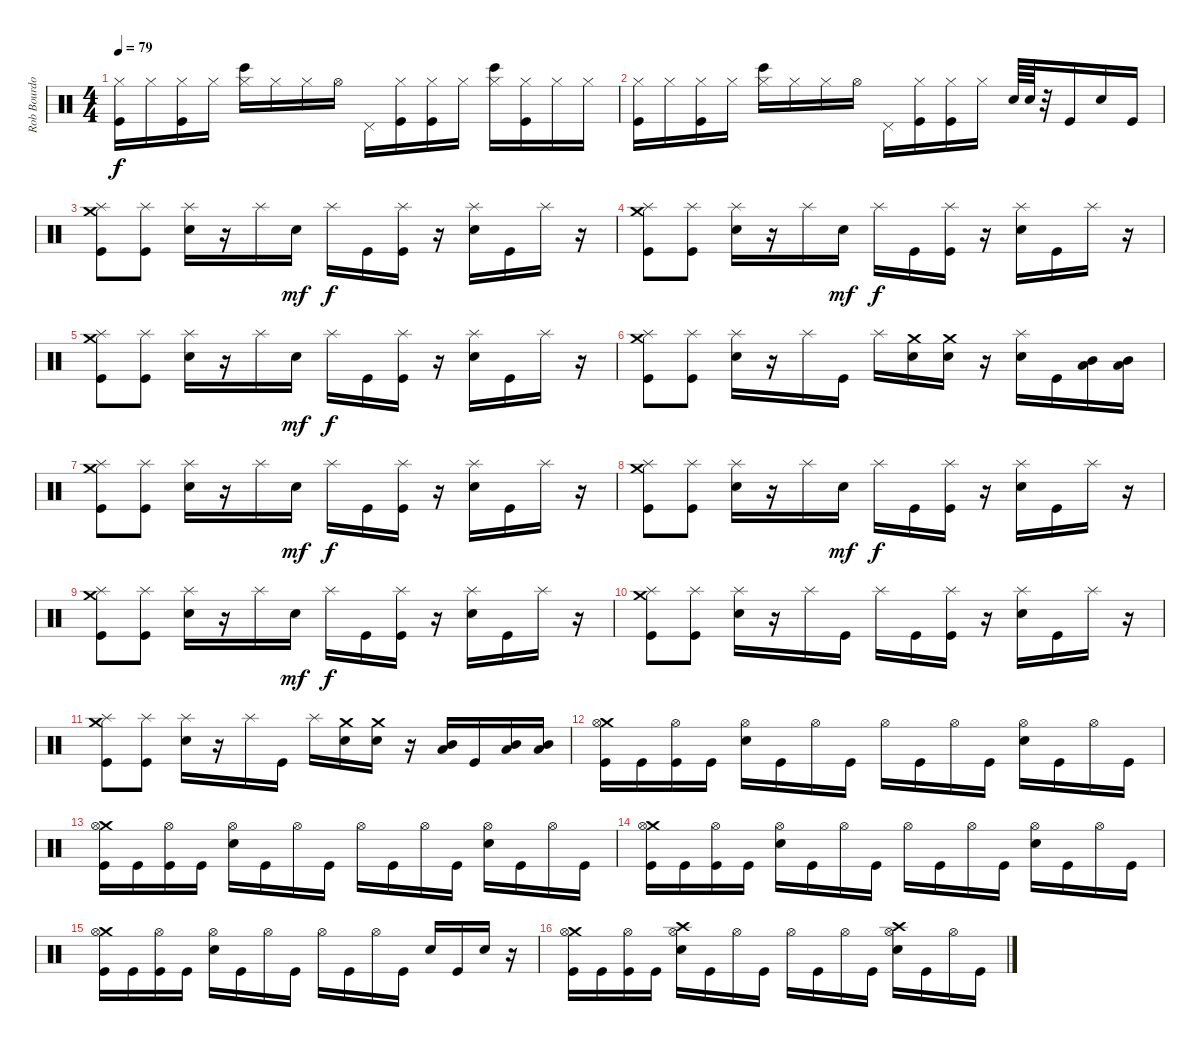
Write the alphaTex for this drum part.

\track ("Rob Bourdon - Drums" "Rob Bourdo") {instrument percussion}
\staff {score}
\articulation defaults
\ts (4 4)
\tempo 79
\clef neutral
\ks c
("Hi-Hat (closed)" "Kick (hit)").16{dy f} "Hi-Hat (closed)".16 ("Hi-Hat (closed)" "Kick (hit)").16 "Hi-Hat (closed)".16 ("Hi-Hat (closed)" "Bongo High (hit)").16 "Hi-Hat (closed)".16 "Hi-Hat (closed)".16 "Hi-Hat (open)".16 "Pedal Hi-Hat (hit)".16 ("Hi-Hat (closed)" "Kick (hit)").16 ("Hi-Hat (closed)" "Kick (hit)").16 "Hi-Hat (closed)".16 ("Hi-Hat (closed)" "Bongo High (hit)").16 ("Hi-Hat (closed)" "Kick (hit)").16 "Hi-Hat (closed)".16 "Hi-Hat (closed)".16 |
("Hi-Hat (closed)" "Kick (hit)").16 "Hi-Hat (closed)".16 ("Hi-Hat (closed)" "Kick (hit)").16 "Hi-Hat (closed)".16 ("Hi-Hat (closed)" "Bongo High (hit)").16 "Hi-Hat (closed)".16 "Hi-Hat (closed)".16 "Hi-Hat (open)".16 "Pedal Hi-Hat (hit)".16 ("Hi-Hat (closed)" "Kick (hit)").16 ("Hi-Hat (closed)" "Kick (hit)").16 "Hi-Hat (closed)".16 "Electric Snare (hit)".64 "Electric Snare (hit)".64 r.32 "Kick (hit)".16 "Electric Snare (hit)".16 "Kick (hit)".16 |
("Crash medium (hit)" "Splash (hit)" "Kick (hit)").8 ("Splash (hit)" "Kick (hit)").8 ("Splash (hit)" "Electric Snare (hit)").16 r.16 "Splash (hit)".16 "Electric Snare (hit)".16{dy mf} "Splash (hit)".16{dy f} "Kick (hit)".16 ("Splash (hit)" "Kick (hit)").16 r.16 ("Splash (hit)" "Electric Snare (hit)").16 "Kick (hit)".16 "Splash (hit)".16 r.16 |
("Crash medium (hit)" "Splash (hit)" "Kick (hit)").8 ("Splash (hit)" "Kick (hit)").8 ("Splash (hit)" "Electric Snare (hit)").16 r.16 "Splash (hit)".16 "Electric Snare (hit)".16{dy mf} "Splash (hit)".16{dy f} "Kick (hit)".16 ("Splash (hit)" "Kick (hit)").16 r.16 ("Splash (hit)" "Electric Snare (hit)").16 "Kick (hit)".16 "Splash (hit)".16 r.16 |
("Crash medium (hit)" "Splash (hit)" "Kick (hit)").8 ("Splash (hit)" "Kick (hit)").8 ("Splash (hit)" "Electric Snare (hit)").16 r.16 "Splash (hit)".16 "Electric Snare (hit)".16{dy mf} "Splash (hit)".16{dy f} "Kick (hit)".16 ("Splash (hit)" "Kick (hit)").16 r.16 ("Splash (hit)" "Electric Snare (hit)").16 "Kick (hit)".16 "Splash (hit)".16 r.16 |
("Crash medium (hit)" "Splash (hit)" "Kick (hit)").8 ("Splash (hit)" "Kick (hit)").8 ("Splash (hit)" "Electric Snare (hit)").16 r.16 "Splash (hit)".16 "Kick (hit)".16 "Splash (hit)".16 ("Crash medium (hit)" "Electric Snare (hit)").16 ("Crash medium (hit)" "Electric Snare (hit)").16 r.16 ("Splash (hit)" "Electric Snare (hit)").16 "Kick (hit)".16 ("Mid Tom (hit)" "Low Tom (hit)").16 ("Mid Tom (hit)" "Low Tom (hit)").16 |
("Crash medium (hit)" "Splash (hit)" "Kick (hit)").8 ("Splash (hit)" "Kick (hit)").8 ("Splash (hit)" "Electric Snare (hit)").16 r.16 "Splash (hit)".16 "Electric Snare (hit)".16{dy mf} "Splash (hit)".16{dy f} "Kick (hit)".16 ("Splash (hit)" "Kick (hit)").16 r.16 ("Splash (hit)" "Electric Snare (hit)").16 "Kick (hit)".16 "Splash (hit)".16 r.16 |
("Crash medium (hit)" "Splash (hit)" "Kick (hit)").8 ("Splash (hit)" "Kick (hit)").8 ("Splash (hit)" "Electric Snare (hit)").16 r.16 "Splash (hit)".16 "Electric Snare (hit)".16{dy mf} "Splash (hit)".16{dy f} "Kick (hit)".16 ("Splash (hit)" "Kick (hit)").16 r.16 ("Splash (hit)" "Electric Snare (hit)").16 "Kick (hit)".16 "Splash (hit)".16 r.16 |
("Crash medium (hit)" "Splash (hit)" "Kick (hit)").8 ("Splash (hit)" "Kick (hit)").8 ("Splash (hit)" "Electric Snare (hit)").16 r.16 "Splash (hit)".16 "Electric Snare (hit)".16{dy mf} "Splash (hit)".16{dy f} "Kick (hit)".16 ("Splash (hit)" "Kick (hit)").16 r.16 ("Splash (hit)" "Electric Snare (hit)").16 "Kick (hit)".16 "Splash (hit)".16 r.16 |
("Crash medium (hit)" "Splash (hit)" "Kick (hit)").8 ("Splash (hit)" "Kick (hit)").8 ("Splash (hit)" "Electric Snare (hit)").16 r.16 "Splash (hit)".16 "Kick (hit)".16 "Splash (hit)".16 "Kick (hit)".16 ("Splash (hit)" "Kick (hit)").16 r.16 ("Splash (hit)" "Electric Snare (hit)").16 "Kick (hit)".16 "Splash (hit)".16 r.16 |
("Crash medium (hit)" "Splash (hit)" "Kick (hit)").8 ("Splash (hit)" "Kick (hit)").8 ("Splash (hit)" "Electric Snare (hit)").16 r.16 "Splash (hit)".16 "Kick (hit)".16 "Splash (hit)".16 ("Crash medium (hit)" "Electric Snare (hit)").16 ("Crash medium (hit)" "Electric Snare (hit)").16 r.16 ("Mid Tom (hit)" "Low Tom (hit)").16 "Kick (hit)".16 ("Mid Tom (hit)" "Low Tom (hit)").16 ("Mid Tom (hit)" "Low Tom (hit)").16 |
("Crash medium (hit)" "Hi-Hat (open)" "Kick (hit)").16 "Kick (hit)".16 ("Hi-Hat (open)" "Kick (hit)").16 "Kick (hit)".16 ("Hi-Hat (open)" "Electric Snare (hit)").16 "Kick (hit)".16 "Hi-Hat (open)".16 "Kick (hit)".16 "Hi-Hat (open)".16 "Kick (hit)".16 "Hi-Hat (open)".16 "Kick (hit)".16 ("Hi-Hat (open)" "Electric Snare (hit)").16 "Kick (hit)".16 "Hi-Hat (open)".16 "Kick (hit)".16 |
("Crash medium (hit)" "Hi-Hat (open)" "Kick (hit)").16 "Kick (hit)".16 ("Hi-Hat (open)" "Kick (hit)").16 "Kick (hit)".16 ("Hi-Hat (open)" "Electric Snare (hit)").16 "Kick (hit)".16 "Hi-Hat (open)".16 "Kick (hit)".16 "Hi-Hat (open)".16 "Kick (hit)".16 "Hi-Hat (open)".16 "Kick (hit)".16 ("Hi-Hat (open)" "Electric Snare (hit)").16 "Kick (hit)".16 "Hi-Hat (open)".16 "Kick (hit)".16 |
("Crash medium (hit)" "Hi-Hat (open)" "Kick (hit)").16 "Kick (hit)".16 ("Hi-Hat (open)" "Kick (hit)").16 "Kick (hit)".16 ("Hi-Hat (open)" "Electric Snare (hit)").16 "Kick (hit)".16 "Hi-Hat (open)".16 "Kick (hit)".16 "Hi-Hat (open)".16 "Kick (hit)".16 "Hi-Hat (open)".16 "Kick (hit)".16 ("Hi-Hat (open)" "Electric Snare (hit)").16 "Kick (hit)".16 "Hi-Hat (open)".16 "Kick (hit)".16 |
("Crash medium (hit)" "Hi-Hat (open)" "Kick (hit)").16 "Kick (hit)".16 ("Hi-Hat (open)" "Kick (hit)").16 "Kick (hit)".16 ("Hi-Hat (open)" "Electric Snare (hit)").16 "Kick (hit)".16 "Hi-Hat (open)".16 "Kick (hit)".16 "Hi-Hat (open)".16 "Kick (hit)".16 "Hi-Hat (open)".16 "Kick (hit)".16 "Electric Snare (hit)".16 "Kick (hit)".16 "Electric Snare (hit)".16 r.16 |
("Crash medium (hit)" "Hi-Hat (open)" "Kick (hit)").16 "Kick (hit)".16 ("Hi-Hat (open)" "Kick (hit)").16 "Kick (hit)".16 ("Crash high (hit)" "Hi-Hat (open)" "Electric Snare (hit)").16 "Kick (hit)".16 "Hi-Hat (open)".16 "Kick (hit)".16 "Hi-Hat (open)".16 "Kick (hit)".16 "Hi-Hat (open)".16 "Kick (hit)".16 ("Crash high (hit)" "Hi-Hat (open)" "Electric Snare (hit)").16 "Kick (hit)".16 "Hi-Hat (open)".16 "Kick (hit)".16
